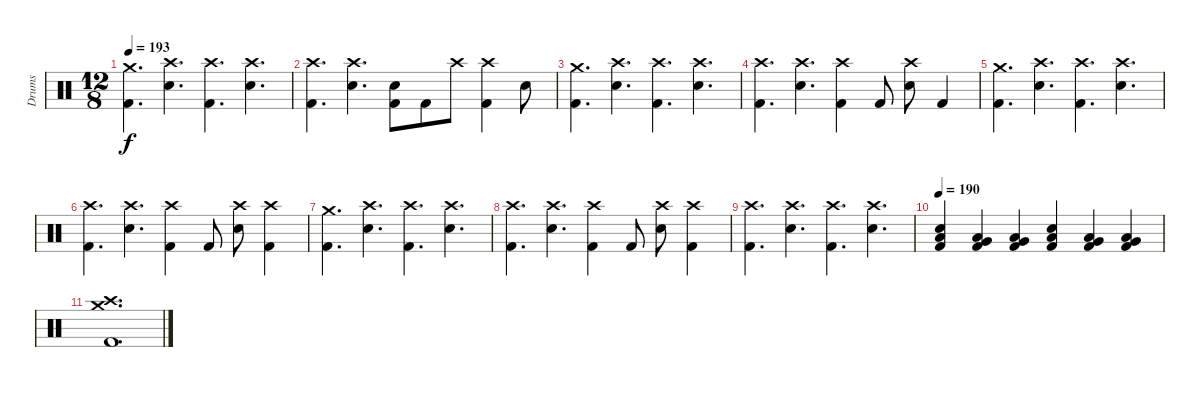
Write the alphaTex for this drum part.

\track ("Drums" "Drums") {instrument percussion}
\staff {score}
\articulation defaults
\ts (12 8)
\tempo 193
\clef neutral
\ks c
("Crash medium (hit)" "Kick (hit) 2").4{d dy f} ("Crash high (hit)" "Electric Snare (hit)").4{d} ("Crash high (hit)" "Kick (hit) 2").4{d} ("Crash high (hit)" "Electric Snare (hit)").4{d} |
("Crash high (hit)" "Kick (hit) 2").4{d} ("Crash high (hit)" "Electric Snare (hit)").4{d} ("Electric Snare (hit)" "Kick (hit) 2").8 "Kick (hit) 2".8 "Crash high (hit)".8 ("Crash high (hit)" "Kick (hit) 2").4 "Electric Snare (hit)".8 |
("Crash medium (hit)" "Kick (hit) 2").4{d} ("Crash high (hit)" "Electric Snare (hit)").4{d} ("Crash high (hit)" "Kick (hit) 2").4{d} ("Crash high (hit)" "Electric Snare (hit)").4{d} |
("Crash high (hit)" "Kick (hit) 2").4{d} ("Crash high (hit)" "Electric Snare (hit)").4{d} ("Crash high (hit)" "Kick (hit) 2").4 "Kick (hit) 2".8 ("Crash high (hit)" "Electric Snare (hit)").8 "Kick (hit) 2".4 |
("Crash medium (hit)" "Kick (hit) 2").4{d} ("Crash high (hit)" "Electric Snare (hit)").4{d} ("Crash high (hit)" "Kick (hit) 2").4{d} ("Crash high (hit)" "Electric Snare (hit)").4{d} |
("Crash high (hit)" "Kick (hit) 2").4{d} ("Crash high (hit)" "Electric Snare (hit)").4{d} ("Crash high (hit)" "Kick (hit) 2").4 "Kick (hit) 2".8 ("Crash high (hit)" "Electric Snare (hit)").8 ("Crash high (hit)" "Kick (hit) 2").4 |
("Crash medium (hit)" "Kick (hit) 2").4{d} ("Crash high (hit)" "Electric Snare (hit)").4{d} ("Crash high (hit)" "Kick (hit) 2").4{d} ("Crash high (hit)" "Electric Snare (hit)").4{d} |
("Crash high (hit)" "Kick (hit) 2").4{d} ("Crash high (hit)" "Electric Snare (hit)").4{d} ("Crash high (hit)" "Kick (hit) 2").4 "Kick (hit) 2".8 ("Crash high (hit)" "Electric Snare (hit)").8 ("Crash high (hit)" "Kick (hit) 2").4 |
("Crash high (hit)" "Kick (hit) 2").4{d} ("Crash high (hit)" "Electric Snare (hit)").4{d} ("Crash high (hit)" "Kick (hit) 2").4{d} ("Crash high (hit)" "Electric Snare (hit)").4{d} |
\tempo 190
("Low Tom (hit)" "Electric Snare (hit)" "Kick (hit) 2").4 ("Low Tom (hit)" "Very Low Tom (hit)" "Kick (hit) 2").4 ("Very Low Tom (hit)" "Low Floor Tom (hit)" "Kick (hit) 2").4 ("Low Tom (hit)" "Electric Snare (hit)" "Kick (hit) 2").4 ("Low Tom (hit)" "Very Low Tom (hit)" "Kick (hit) 2").4 ("Very Low Tom (hit)" "Low Floor Tom (hit)" "Kick (hit) 2").4 |
("Crash medium (hit)" "Crash high (hit)" "Kick (hit) 2").1{d}
